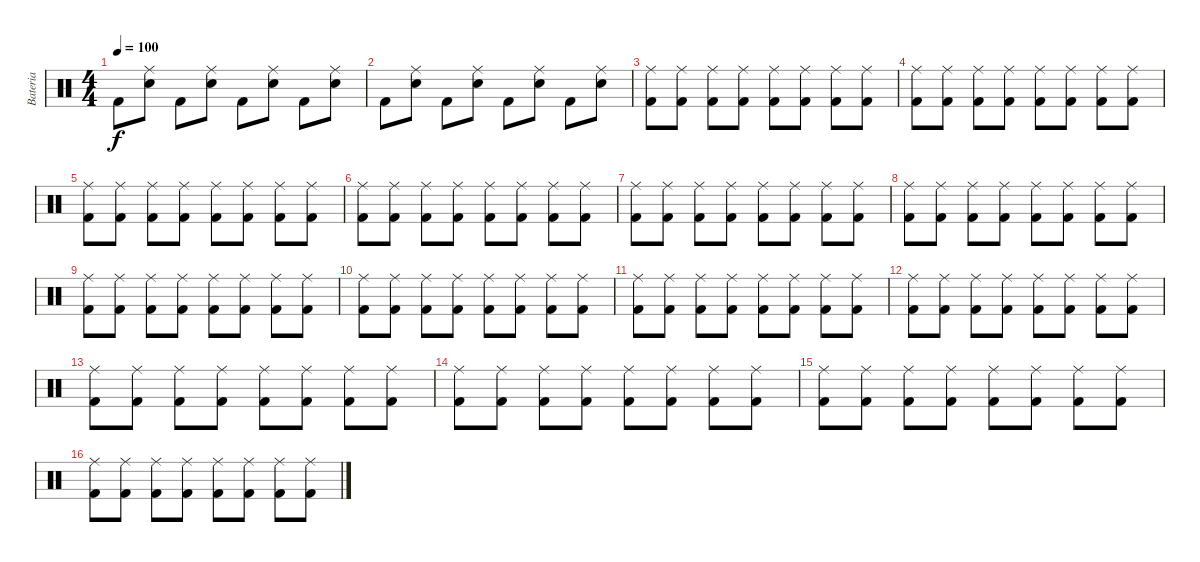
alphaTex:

\track ("Bateria" "Bateria") {instrument percussion}
\staff {score}
\articulation defaults
\ts (4 4)
\tempo 100
\clef neutral
\ks c "Kick (hit) 2".8{dy f}
("Ride (middle)" "Snare (hit) 2").8 "Kick (hit) 2".8 ("Ride (middle)" "Snare (hit) 2").8 "Kick (hit) 2".8 ("Ride (middle)" "Snare (hit) 2").8 "Kick (hit) 2".8 ("Ride (middle)" "Snare (hit) 2").8 |
"Kick (hit) 2".8 ("Ride (middle)" "Snare (hit) 2").8 "Kick (hit) 2".8 ("Ride (middle)" "Snare (hit) 2").8 "Kick (hit) 2".8 ("Ride (middle)" "Snare (hit) 2").8 "Kick (hit) 2".8 ("Ride (middle)" "Snare (hit) 2").8 |
("Ride (middle)" "Kick (hit) 2").8 ("Ride (middle)" "Kick (hit) 2").8 ("Ride (middle)" "Kick (hit) 2").8 ("Ride (middle)" "Kick (hit) 2").8 ("Ride (middle)" "Kick (hit) 2").8 ("Ride (middle)" "Kick (hit) 2").8 ("Ride (middle)" "Kick (hit) 2").8 ("Ride (middle)" "Kick (hit) 2").8 |
("Ride (middle)" "Kick (hit) 2").8 ("Ride (middle)" "Kick (hit) 2").8 ("Ride (middle)" "Kick (hit) 2").8 ("Ride (middle)" "Kick (hit) 2").8 ("Ride (middle)" "Kick (hit) 2").8 ("Ride (middle)" "Kick (hit) 2").8 ("Ride (middle)" "Kick (hit) 2").8 ("Ride (middle)" "Kick (hit) 2").8 |
("Ride (middle)" "Kick (hit) 2").8 ("Ride (middle)" "Kick (hit) 2").8 ("Ride (middle)" "Kick (hit) 2").8 ("Ride (middle)" "Kick (hit) 2").8 ("Ride (middle)" "Kick (hit) 2").8 ("Ride (middle)" "Kick (hit) 2").8 ("Ride (middle)" "Kick (hit) 2").8 ("Ride (middle)" "Kick (hit) 2").8 |
("Ride (middle)" "Kick (hit) 2").8 ("Ride (middle)" "Kick (hit) 2").8 ("Ride (middle)" "Kick (hit) 2").8 ("Ride (middle)" "Kick (hit) 2").8 ("Ride (middle)" "Kick (hit) 2").8 ("Ride (middle)" "Kick (hit) 2").8 ("Ride (middle)" "Kick (hit) 2").8 ("Ride (middle)" "Kick (hit) 2").8 |
("Ride (middle)" "Kick (hit) 2").8 ("Ride (middle)" "Kick (hit) 2").8 ("Ride (middle)" "Kick (hit) 2").8 ("Ride (middle)" "Kick (hit) 2").8 ("Ride (middle)" "Kick (hit) 2").8 ("Ride (middle)" "Kick (hit) 2").8 ("Ride (middle)" "Kick (hit) 2").8 ("Ride (middle)" "Kick (hit) 2").8 |
("Ride (middle)" "Kick (hit) 2").8 ("Ride (middle)" "Kick (hit) 2").8 ("Ride (middle)" "Kick (hit) 2").8 ("Ride (middle)" "Kick (hit) 2").8 ("Ride (middle)" "Kick (hit) 2").8 ("Ride (middle)" "Kick (hit) 2").8 ("Ride (middle)" "Kick (hit) 2").8 ("Ride (middle)" "Kick (hit) 2").8 |
("Ride (middle)" "Kick (hit) 2").8 ("Ride (middle)" "Kick (hit) 2").8 ("Ride (middle)" "Kick (hit) 2").8 ("Ride (middle)" "Kick (hit) 2").8 ("Ride (middle)" "Kick (hit) 2").8 ("Ride (middle)" "Kick (hit) 2").8 ("Ride (middle)" "Kick (hit) 2").8 ("Ride (middle)" "Kick (hit) 2").8 |
("Ride (middle)" "Kick (hit) 2").8 ("Ride (middle)" "Kick (hit) 2").8 ("Ride (middle)" "Kick (hit) 2").8 ("Ride (middle)" "Kick (hit) 2").8 ("Ride (middle)" "Kick (hit) 2").8 ("Ride (middle)" "Kick (hit) 2").8 ("Ride (middle)" "Kick (hit) 2").8 ("Ride (middle)" "Kick (hit) 2").8 |
("Ride (middle)" "Kick (hit) 2").8 ("Ride (middle)" "Kick (hit) 2").8 ("Ride (middle)" "Kick (hit) 2").8 ("Ride (middle)" "Kick (hit) 2").8 ("Ride (middle)" "Kick (hit) 2").8 ("Ride (middle)" "Kick (hit) 2").8 ("Ride (middle)" "Kick (hit) 2").8 ("Ride (middle)" "Kick (hit) 2").8 |
("Ride (middle)" "Kick (hit) 2").8 ("Ride (middle)" "Kick (hit) 2").8 ("Ride (middle)" "Kick (hit) 2").8 ("Ride (middle)" "Kick (hit) 2").8 ("Ride (middle)" "Kick (hit) 2").8 ("Ride (middle)" "Kick (hit) 2").8 ("Ride (middle)" "Kick (hit) 2").8 ("Ride (middle)" "Kick (hit) 2").8 |
("Ride (middle)" "Kick (hit) 2").8 ("Ride (middle)" "Kick (hit) 2").8 ("Ride (middle)" "Kick (hit) 2").8 ("Ride (middle)" "Kick (hit) 2").8 ("Ride (middle)" "Kick (hit) 2").8 ("Ride (middle)" "Kick (hit) 2").8 ("Ride (middle)" "Kick (hit) 2").8 ("Ride (middle)" "Kick (hit) 2").8 |
("Ride (middle)" "Kick (hit) 2").8 ("Ride (middle)" "Kick (hit) 2").8 ("Ride (middle)" "Kick (hit) 2").8 ("Ride (middle)" "Kick (hit) 2").8 ("Ride (middle)" "Kick (hit) 2").8 ("Ride (middle)" "Kick (hit) 2").8 ("Ride (middle)" "Kick (hit) 2").8 ("Ride (middle)" "Kick (hit) 2").8 |
("Ride (middle)" "Kick (hit) 2").8 ("Ride (middle)" "Kick (hit) 2").8 ("Ride (middle)" "Kick (hit) 2").8 ("Ride (middle)" "Kick (hit) 2").8 ("Ride (middle)" "Kick (hit) 2").8 ("Ride (middle)" "Kick (hit) 2").8 ("Ride (middle)" "Kick (hit) 2").8 ("Ride (middle)" "Kick (hit) 2").8 |
("Ride (middle)" "Kick (hit) 2").8 ("Ride (middle)" "Kick (hit) 2").8 ("Ride (middle)" "Kick (hit) 2").8 ("Ride (middle)" "Kick (hit) 2").8 ("Ride (middle)" "Kick (hit) 2").8 ("Ride (middle)" "Kick (hit) 2").8 ("Ride (middle)" "Kick (hit) 2").8 ("Ride (middle)" "Kick (hit) 2").8
